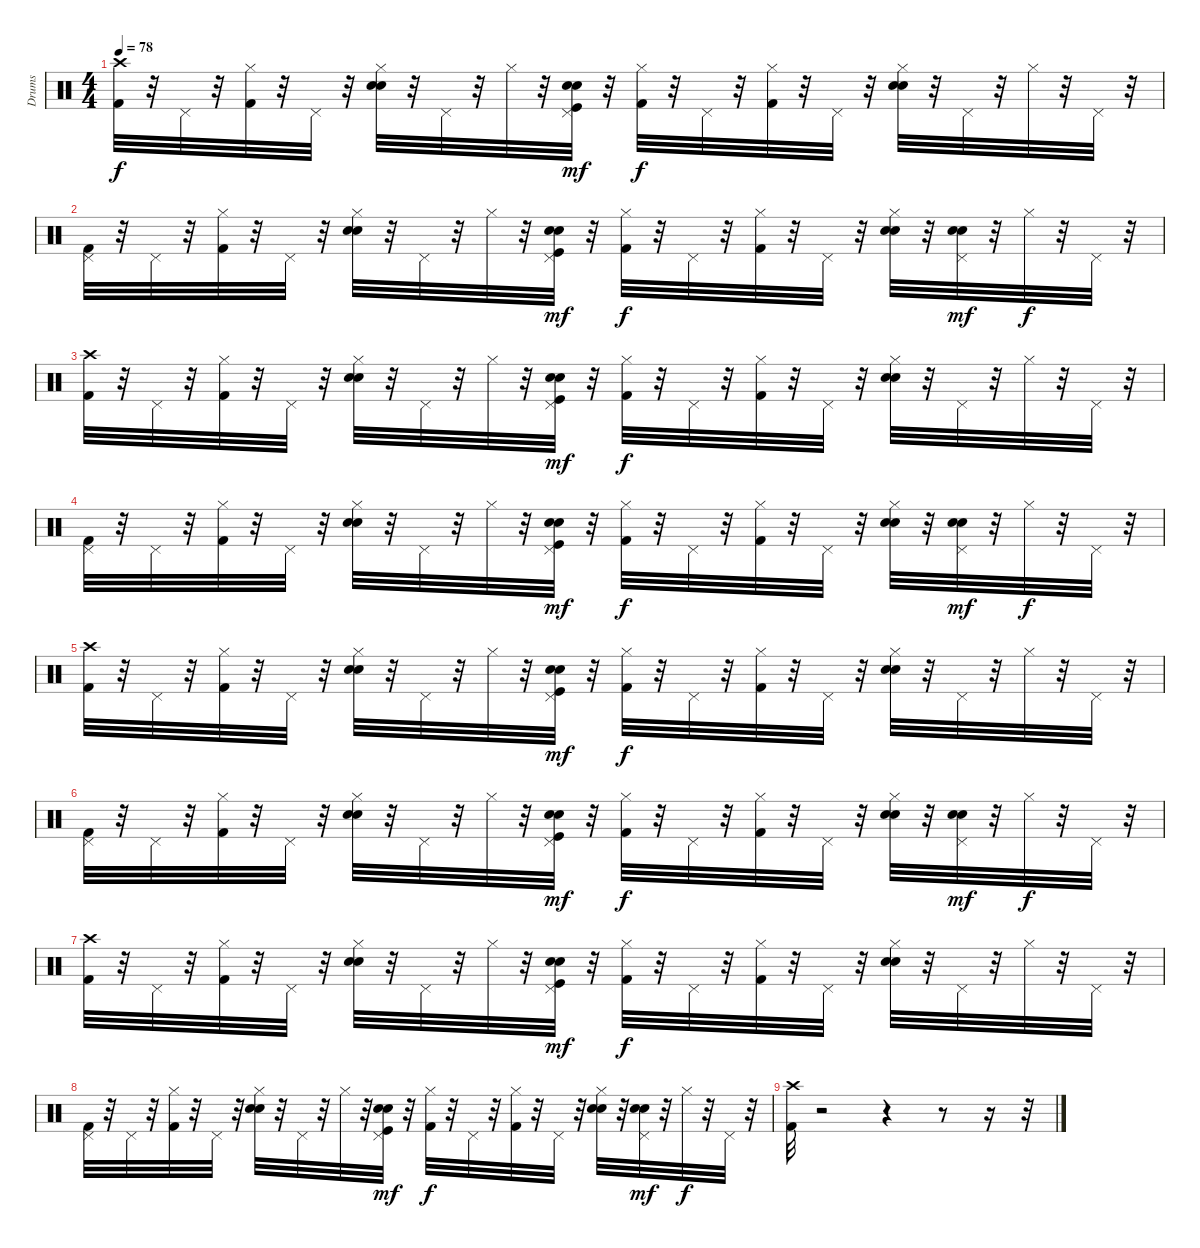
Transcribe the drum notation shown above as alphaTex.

\track ("Drums" "Drums") {instrument percussion}
\staff {score}
\articulation defaults
\ts (4 4)
\tempo 78
\clef neutral
\ks c
("Crash high (hit)" "Kick (hit) 2").32{dy f} r.32 "Pedal Hi-Hat (hit)".32 r.32 ("Hi-Hat (closed)" "Kick (hit) 2").32 r.32 "Pedal Hi-Hat (hit)".32 r.32 ("Hi-Hat (closed)" "Hand Clap (hit)" "Electric Snare (hit)").32 r.32 "Pedal Hi-Hat (hit)".32 r.32 "Hi-Hat (closed)".32 r.32 ("Hand Clap (hit)" "Electric Snare (hit)" "Pedal Hi-Hat (hit)" "Kick (hit)").32{dy mf} r.32 ("Hi-Hat (closed)" "Kick (hit) 2").32{dy f} r.32 "Pedal Hi-Hat (hit)".32 r.32 ("Hi-Hat (closed)" "Kick (hit) 2").32 r.32 "Pedal Hi-Hat (hit)".32 r.32 ("Hi-Hat (closed)" "Hand Clap (hit)" "Electric Snare (hit)").32 r.32 "Pedal Hi-Hat (hit)".32 r.32 "Hi-Hat (closed)".32 r.32 "Pedal Hi-Hat (hit)".32 r.32 |
("Pedal Hi-Hat (hit)" "Kick (hit) 2").32 r.32 "Pedal Hi-Hat (hit)".32 r.32 ("Hi-Hat (closed)" "Kick (hit) 2").32 r.32 "Pedal Hi-Hat (hit)".32 r.32 ("Hi-Hat (closed)" "Hand Clap (hit)" "Electric Snare (hit)").32 r.32 "Pedal Hi-Hat (hit)".32 r.32 "Hi-Hat (closed)".32 r.32 ("Hand Clap (hit)" "Electric Snare (hit)" "Pedal Hi-Hat (hit)" "Kick (hit)").32{dy mf} r.32 ("Hi-Hat (closed)" "Kick (hit) 2").32{dy f} r.32 "Pedal Hi-Hat (hit)".32 r.32 ("Hi-Hat (closed)" "Kick (hit) 2").32 r.32 "Pedal Hi-Hat (hit)".32 r.32 ("Hi-Hat (closed)" "Hand Clap (hit)" "Electric Snare (hit)").32 r.32 ("Hand Clap (hit)" "Electric Snare (hit)" "Pedal Hi-Hat (hit)").32{dy mf} r.32 "Hi-Hat (closed)".32{dy f} r.32 "Pedal Hi-Hat (hit)".32 r.32 |
("Crash high (hit)" "Kick (hit) 2").32 r.32 "Pedal Hi-Hat (hit)".32 r.32 ("Hi-Hat (closed)" "Kick (hit) 2").32 r.32 "Pedal Hi-Hat (hit)".32 r.32 ("Hi-Hat (closed)" "Hand Clap (hit)" "Electric Snare (hit)").32 r.32 "Pedal Hi-Hat (hit)".32 r.32 "Hi-Hat (closed)".32 r.32 ("Hand Clap (hit)" "Electric Snare (hit)" "Pedal Hi-Hat (hit)" "Kick (hit)").32{dy mf} r.32 ("Hi-Hat (closed)" "Kick (hit) 2").32{dy f} r.32 "Pedal Hi-Hat (hit)".32 r.32 ("Hi-Hat (closed)" "Kick (hit) 2").32 r.32 "Pedal Hi-Hat (hit)".32 r.32 ("Hi-Hat (closed)" "Hand Clap (hit)" "Electric Snare (hit)").32 r.32 "Pedal Hi-Hat (hit)".32 r.32 "Hi-Hat (closed)".32 r.32 "Pedal Hi-Hat (hit)".32 r.32 |
("Pedal Hi-Hat (hit)" "Kick (hit) 2").32 r.32 "Pedal Hi-Hat (hit)".32 r.32 ("Hi-Hat (closed)" "Kick (hit) 2").32 r.32 "Pedal Hi-Hat (hit)".32 r.32 ("Hi-Hat (closed)" "Hand Clap (hit)" "Electric Snare (hit)").32 r.32 "Pedal Hi-Hat (hit)".32 r.32 "Hi-Hat (closed)".32 r.32 ("Hand Clap (hit)" "Electric Snare (hit)" "Pedal Hi-Hat (hit)" "Kick (hit)").32{dy mf} r.32 ("Hi-Hat (closed)" "Kick (hit) 2").32{dy f} r.32 "Pedal Hi-Hat (hit)".32 r.32 ("Hi-Hat (closed)" "Kick (hit) 2").32 r.32 "Pedal Hi-Hat (hit)".32 r.32 ("Hi-Hat (closed)" "Hand Clap (hit)" "Electric Snare (hit)").32 r.32 ("Hand Clap (hit)" "Electric Snare (hit)" "Pedal Hi-Hat (hit)").32{dy mf} r.32 "Hi-Hat (closed)".32{dy f} r.32 "Pedal Hi-Hat (hit)".32 r.32 |
("Crash high (hit)" "Kick (hit) 2").32 r.32 "Pedal Hi-Hat (hit)".32 r.32 ("Hi-Hat (closed)" "Kick (hit) 2").32 r.32 "Pedal Hi-Hat (hit)".32 r.32 ("Hi-Hat (closed)" "Hand Clap (hit)" "Electric Snare (hit)").32 r.32 "Pedal Hi-Hat (hit)".32 r.32 "Hi-Hat (closed)".32 r.32 ("Hand Clap (hit)" "Electric Snare (hit)" "Pedal Hi-Hat (hit)" "Kick (hit)").32{dy mf} r.32 ("Hi-Hat (closed)" "Kick (hit) 2").32{dy f} r.32 "Pedal Hi-Hat (hit)".32 r.32 ("Hi-Hat (closed)" "Kick (hit) 2").32 r.32 "Pedal Hi-Hat (hit)".32 r.32 ("Hi-Hat (closed)" "Hand Clap (hit)" "Electric Snare (hit)").32 r.32 "Pedal Hi-Hat (hit)".32 r.32 "Hi-Hat (closed)".32 r.32 "Pedal Hi-Hat (hit)".32 r.32 |
("Pedal Hi-Hat (hit)" "Kick (hit) 2").32 r.32 "Pedal Hi-Hat (hit)".32 r.32 ("Hi-Hat (closed)" "Kick (hit) 2").32 r.32 "Pedal Hi-Hat (hit)".32 r.32 ("Hi-Hat (closed)" "Hand Clap (hit)" "Electric Snare (hit)").32 r.32 "Pedal Hi-Hat (hit)".32 r.32 "Hi-Hat (closed)".32 r.32 ("Hand Clap (hit)" "Electric Snare (hit)" "Pedal Hi-Hat (hit)" "Kick (hit)").32{dy mf} r.32 ("Hi-Hat (closed)" "Kick (hit) 2").32{dy f} r.32 "Pedal Hi-Hat (hit)".32 r.32 ("Hi-Hat (closed)" "Kick (hit) 2").32 r.32 "Pedal Hi-Hat (hit)".32 r.32 ("Hi-Hat (closed)" "Hand Clap (hit)" "Electric Snare (hit)").32 r.32 ("Hand Clap (hit)" "Electric Snare (hit)" "Pedal Hi-Hat (hit)").32{dy mf} r.32 "Hi-Hat (closed)".32{dy f} r.32 "Pedal Hi-Hat (hit)".32 r.32 |
("Crash high (hit)" "Kick (hit) 2").32 r.32 "Pedal Hi-Hat (hit)".32 r.32 ("Hi-Hat (closed)" "Kick (hit) 2").32 r.32 "Pedal Hi-Hat (hit)".32 r.32 ("Hi-Hat (closed)" "Hand Clap (hit)" "Electric Snare (hit)").32 r.32 "Pedal Hi-Hat (hit)".32 r.32 "Hi-Hat (closed)".32 r.32 ("Hand Clap (hit)" "Electric Snare (hit)" "Pedal Hi-Hat (hit)" "Kick (hit)").32{dy mf} r.32 ("Hi-Hat (closed)" "Kick (hit) 2").32{dy f} r.32 "Pedal Hi-Hat (hit)".32 r.32 ("Hi-Hat (closed)" "Kick (hit) 2").32 r.32 "Pedal Hi-Hat (hit)".32 r.32 ("Hi-Hat (closed)" "Hand Clap (hit)" "Electric Snare (hit)").32 r.32 "Pedal Hi-Hat (hit)".32 r.32 "Hi-Hat (closed)".32 r.32 "Pedal Hi-Hat (hit)".32 r.32 |
("Pedal Hi-Hat (hit)" "Kick (hit) 2").32 r.32 "Pedal Hi-Hat (hit)".32 r.32 ("Hi-Hat (closed)" "Kick (hit) 2").32 r.32 "Pedal Hi-Hat (hit)".32 r.32 ("Hi-Hat (closed)" "Hand Clap (hit)" "Electric Snare (hit)").32 r.32 "Pedal Hi-Hat (hit)".32 r.32 "Hi-Hat (closed)".32 r.32 ("Hand Clap (hit)" "Electric Snare (hit)" "Pedal Hi-Hat (hit)" "Kick (hit)").32{dy mf} r.32 ("Hi-Hat (closed)" "Kick (hit) 2").32{dy f} r.32 "Pedal Hi-Hat (hit)".32 r.32 ("Hi-Hat (closed)" "Kick (hit) 2").32 r.32 "Pedal Hi-Hat (hit)".32 r.32 ("Hi-Hat (closed)" "Hand Clap (hit)" "Electric Snare (hit)").32 r.32 ("Hand Clap (hit)" "Electric Snare (hit)" "Pedal Hi-Hat (hit)").32{dy mf} r.32 "Hi-Hat (closed)".32{dy f} r.32 "Pedal Hi-Hat (hit)".32 r.32 |
("Crash high (hit)" "Kick (hit) 2").32 r.2 r.4 r.8 r.16 r.32
